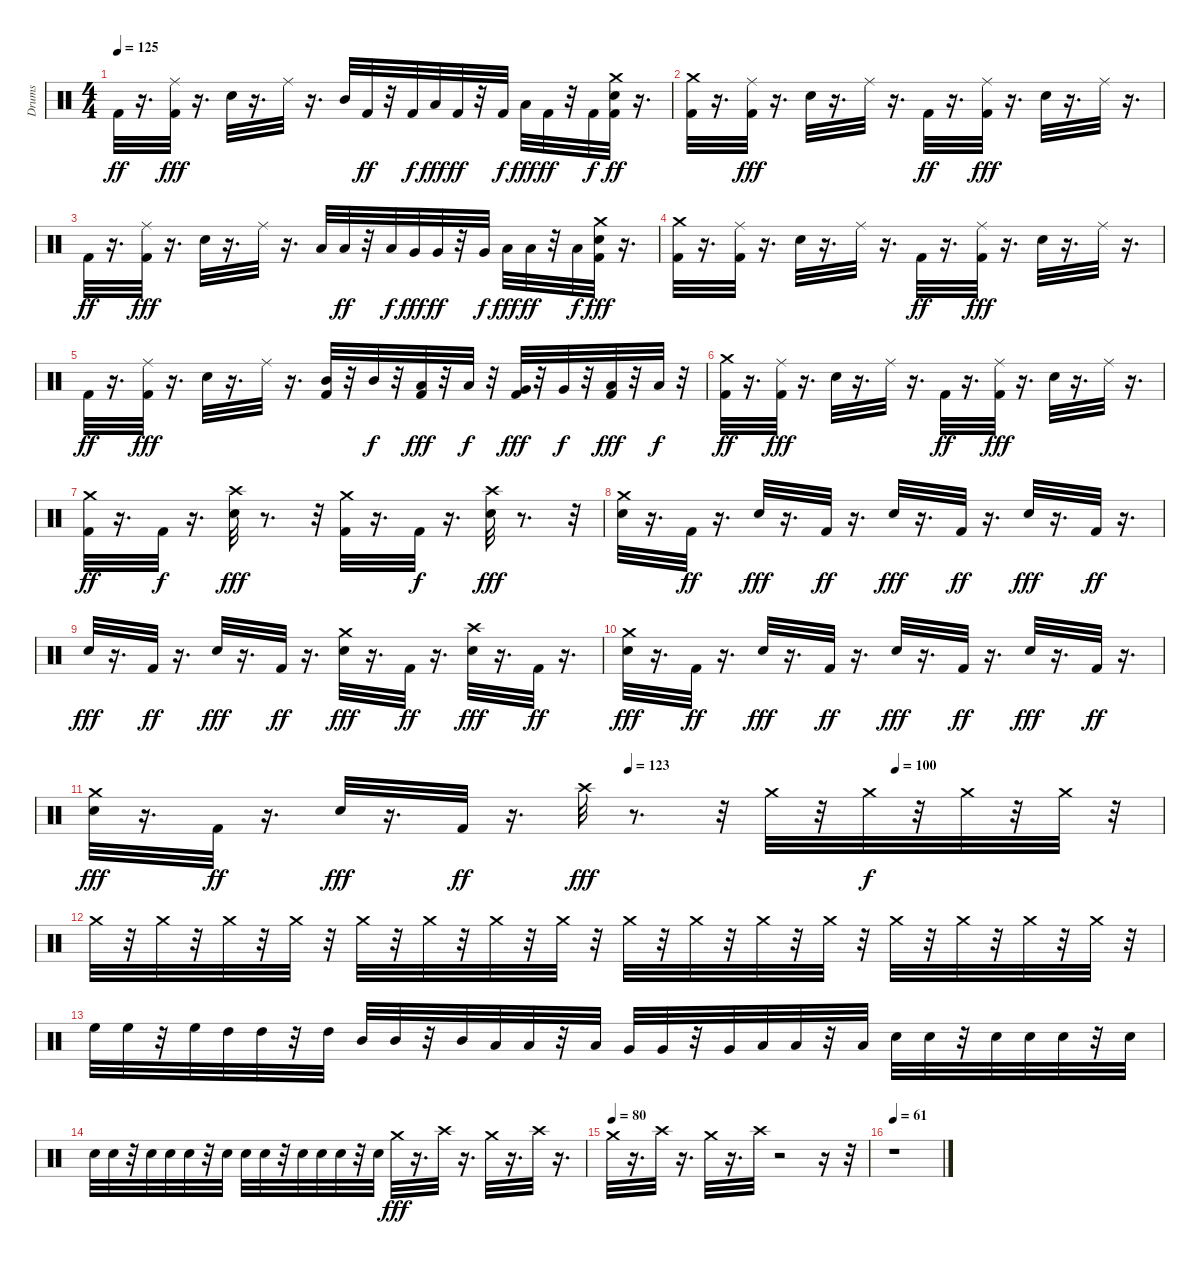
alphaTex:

\track ("Drums" "Drums") {instrument percussion}
\staff {score}
\articulation defaults
\ts (4 4)
\tempo 125
\clef neutral
\ks c "Kick (hit) 2".32{dy ff}
r.16{d} ("Ride (middle)" "Kick (hit) 2").32{dy fff} r.16{d} "Snare (hit) 2".32 r.16{d} "Ride (middle)".32 r.16{d} "Mid Tom (hit)".32 "Kick (hit) 2".32{dy ff} r.32 "Kick (hit) 2".32{dy f} "Low Tom (hit)".32{dy fff} "Kick (hit) 2".32{dy ff} r.32 "Kick (hit) 2".32{dy f} "Low Floor Tom (hit)".32{dy fff} "Kick (hit) 2".32{dy ff} r.32 "Kick (hit) 2".32{dy f} ("Snare (hit) 2" "Crash medium (hit)" "Kick (hit) 2").32{dy ff} r.16{d} |
("Crash medium (hit)" "Kick (hit) 2").32 r.16{d} ("Ride (middle)" "Kick (hit) 2").32{dy fff} r.16{d} "Snare (hit) 2".32 r.16{d} "Ride (middle)".32 r.16{d} "Kick (hit) 2".32{dy ff} r.16{d} ("Ride (middle)" "Kick (hit) 2").32{dy fff} r.16{d} "Snare (hit) 2".32 r.16{d} "Ride (middle)".32 r.16{d} |
"Kick (hit) 2".32{dy ff} r.16{d} ("Ride (middle)" "Kick (hit) 2").32{dy fff} r.16{d} "Snare (hit) 2".32 r.16{d} "Ride (middle)".32 r.16{d} "Low Tom (hit)".32 "Low Tom (hit)".32{dy ff} r.32 "Low Tom (hit)".32{dy f} "Very Low Tom (hit)".32{dy fff} "Very Low Tom (hit)".32{dy ff} r.32 "Very Low Tom (hit)".32{dy f} "Low Floor Tom (hit)".32{dy fff} "Low Floor Tom (hit)".32{dy ff} r.32 "Low Floor Tom (hit)".32{dy f} ("Snare (hit) 2" "Kick (hit) 2" "Crash medium (hit)").32{dy fff} r.16{d} |
("Kick (hit) 2" "Crash medium (hit)").32 r.16{d} ("Ride (middle)" "Kick (hit) 2").32 r.16{d} "Snare (hit) 2".32 r.16{d} "Ride (middle)".32 r.16{d} "Kick (hit) 2".32{dy ff} r.16{d} ("Ride (middle)" "Kick (hit) 2").32{dy fff} r.16{d} "Snare (hit) 2".32 r.16{d} "Ride (middle)".32 r.16{d} |
"Kick (hit) 2".32{dy ff} r.16{d} ("Ride (middle)" "Kick (hit) 2").32{dy fff} r.16{d} "Snare (hit) 2".32 r.16{d} "Ride (middle)".32 r.16{d} ("Kick (hit) 2" "Mid Tom (hit)").32 r.32 "Mid Tom (hit)".32{dy f} r.32 ("Kick (hit) 2" "Low Tom (hit)").32{dy fff} r.32 "Low Tom (hit)".32{dy f} r.32 ("Kick (hit) 2" "Very Low Tom (hit)").32{dy fff} r.32 "Very Low Tom (hit)".32{dy f} r.32 ("Kick (hit) 2" "Low Floor Tom (hit)").32{dy fff} r.32 "Low Floor Tom (hit)".32{dy f} r.32 |
("Crash medium (hit)" "Kick (hit) 2").32{dy ff} r.16{d} ("Ride (middle)" "Kick (hit) 2").32{dy fff} r.16{d} "Snare (hit) 2".32 r.16{d} "Ride (middle)".32 r.16{d} "Kick (hit) 2".32{dy ff} r.16{d} ("Ride (middle)" "Kick (hit) 2").32{dy fff} r.16{d} "Snare (hit) 2".32 r.16{d} "Ride (middle)".32 r.16{d} |
("Crash medium (hit)" "Kick (hit) 2").32{dy ff} r.16{d} "Kick (hit) 2".32{dy f} r.16{d} ("Snare (hit) 2" "Crash high (hit)").32{dy fff} r.8{d} r.32 ("Kick (hit) 2" "Crash medium (hit)").32 r.16{d} "Kick (hit) 2".32{dy f} r.16{d} ("Snare (hit) 2" "Crash high (hit)").32{dy fff} r.8{d} r.32 |
("Crash medium (hit)" "Snare (hit) 2").32 r.16{d} "Kick (hit) 2".32{dy ff} r.16{d} "Snare (hit) 2".32{dy fff} r.16{d} "Kick (hit) 2".32{dy ff} r.16{d} "Snare (hit) 2".32{dy fff} r.16{d} "Kick (hit) 2".32{dy ff} r.16{d} "Snare (hit) 2".32{dy fff} r.16{d} "Kick (hit) 2".32{dy ff} r.16{d} |
"Snare (hit) 2".32{dy fff} r.16{d} "Kick (hit) 2".32{dy ff} r.16{d} "Snare (hit) 2".32{dy fff} r.16{d} "Kick (hit) 2".32{dy ff} r.16{d} ("Crash medium (hit)" "Snare (hit) 2").32{dy fff} r.16{d} "Kick (hit) 2".32{dy ff} r.16{d} ("Crash high (hit)" "Snare (hit) 2").32{dy fff} r.16{d} "Kick (hit) 2".32{dy ff} r.16{d} |
("Snare (hit) 2" "Crash medium (hit)").32{dy fff} r.16{d} "Kick (hit) 2".32{dy ff} r.16{d} "Snare (hit) 2".32{dy fff} r.16{d} "Kick (hit) 2".32{dy ff} r.16{d} "Snare (hit) 2".32{dy fff} r.16{d} "Kick (hit) 2".32{dy ff} r.16{d} "Snare (hit) 2".32{dy fff} r.16{d} "Kick (hit) 2".32{dy ff} r.16{d} |
\tempo (123 0.5)
\tempo (100 0.75)
("Snare (hit) 2" "Crash medium (hit)").32{dy fff} r.16{d} "Kick (hit) 2".32{dy ff} r.16{d} "Snare (hit) 2".32{dy fff} r.16{d} "Kick (hit) 2".32{dy ff} r.16{d} "Crash high (hit)".32{dy fff} r.8{d} r.32 "Crash medium (hit)".32 r.32 "Crash medium (hit)".32{dy f} r.32 "Crash medium (hit)".32 r.32 "Crash medium (hit)".32 r.32 |
"Crash medium (hit)".32 r.32 "Crash medium (hit)".32 r.32 "Crash medium (hit)".32 r.32 "Crash medium (hit)".32 r.32 "Crash medium (hit)".32 r.32 "Crash medium (hit)".32 r.32 "Crash medium (hit)".32 r.32 "Crash medium (hit)".32 r.32 "Crash medium (hit)".32 r.32 "Crash medium (hit)".32 r.32 "Crash medium (hit)".32 r.32 "Crash medium (hit)".32 r.32 "Crash medium (hit)".32 r.32 "Crash medium (hit)".32 r.32 "Crash medium (hit)".32 r.32 "Crash medium (hit)".32 r.32 |
"High Floor Tom (hit)".32 "High Floor Tom (hit)".32{volume 12} r.32 "High Floor Tom (hit)".32{volume 12} "High Tom (hit)".32{volume 12} "High Tom (hit)".32{volume 12} r.32 "High Tom (hit)".32{volume 13} "Mid Tom (hit)".32{volume 13} "Mid Tom (hit)".32 r.32 "Mid Tom (hit)".32{volume 13} "Low Tom (hit)".32 "Low Tom (hit)".32{volume 13} r.32 "Low Tom (hit)".32{volume 13} "Very Low Tom (hit)".32 "Very Low Tom (hit)".32 r.32 "Very Low Tom (hit)".32{volume 13} "Low Floor Tom (hit)".32{volume 14} "Low Floor Tom (hit)".32 r.32 "Low Floor Tom (hit)".32{volume 14} "Snare (hit) 2".32{volume 14} "Snare (hit) 2".32{volume 14} r.32 "Snare (hit) 2".32 "Snare (hit) 2".32 "Snare (hit) 2".32 r.32 "Snare (hit) 2".32 |
"Snare (hit) 2".32 "Snare (hit) 2".32 r.32 "Snare (hit) 2".32 "Snare (hit) 2".32 "Snare (hit) 2".32 r.32 "Snare (hit) 2".32{volume 14} "Snare (hit) 2".32{volume 14} "Snare (hit) 2".32{volume 15} r.32 "Snare (hit) 2".32{volume 15} "Snare (hit) 2".32{volume 16} "Snare (hit) 2".32{volume 16} r.32 "Snare (hit) 2".32{volume 16} "Crash medium (hit)".32{dy fff} r.16{d} "Crash high (hit)".32 r.16{d} "Crash medium (hit)".32 r.16{d} "Crash high (hit)".32 r.16{d} |
\tempo (80)
"Crash medium (hit)".32 r.16{d} "Crash high (hit)".32 r.16{d} "Crash medium (hit)".32 r.16{d} "Crash high (hit)".32 r.2 r.16 r.32 |
\tempo 61
r.1
